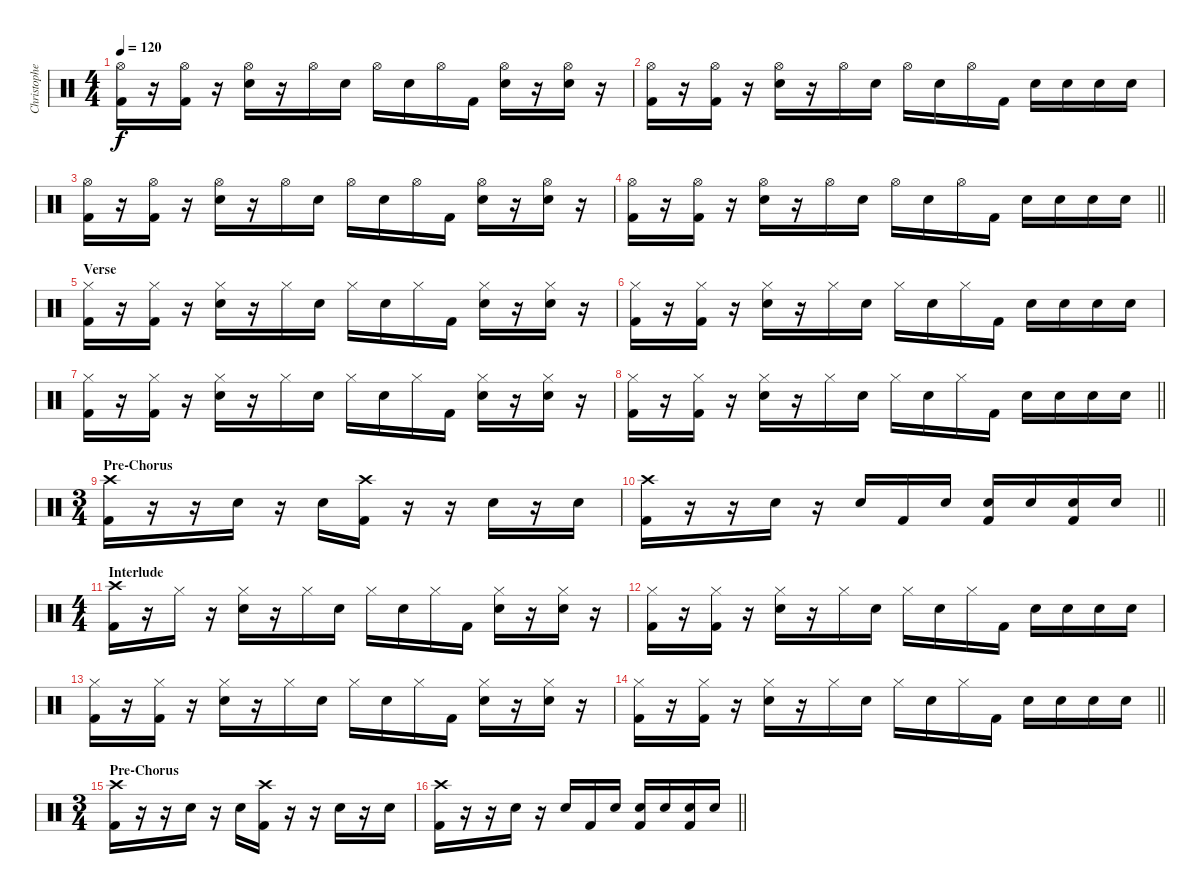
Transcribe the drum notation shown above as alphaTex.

\track ("Christopher - Drums" "Christophe") {instrument percussion}
\staff {score}
\articulation defaults
\ts (4 4)
\tempo 120
\clef neutral
\ks c
("Hi-Hat (open)" "Kick (hit) 2").16{dy f} r.16 ("Hi-Hat (open)" "Kick (hit) 2").16 r.16 ("Hi-Hat (open)" "Electric Snare (hit)").16 r.16 "Hi-Hat (open)".16 "Electric Snare (hit)".16 "Hi-Hat (open)".16 "Electric Snare (hit)".16 "Hi-Hat (open)".16 "Kick (hit) 2".16 ("Hi-Hat (open)" "Electric Snare (hit)").16 r.16 ("Hi-Hat (open)" "Electric Snare (hit)").16 r.16 |
("Hi-Hat (open)" "Kick (hit) 2").16 r.16 ("Hi-Hat (open)" "Kick (hit) 2").16 r.16 ("Hi-Hat (open)" "Electric Snare (hit)").16 r.16 "Hi-Hat (open)".16 "Electric Snare (hit)".16 "Hi-Hat (open)".16 "Electric Snare (hit)".16 "Hi-Hat (open)".16 "Kick (hit) 2".16 "Electric Snare (hit)".16 "Electric Snare (hit)".16 "Electric Snare (hit)".16 "Electric Snare (hit)".16 |
("Hi-Hat (open)" "Kick (hit) 2").16 r.16 ("Hi-Hat (open)" "Kick (hit) 2").16 r.16 ("Hi-Hat (open)" "Electric Snare (hit)").16 r.16 "Hi-Hat (open)".16 "Electric Snare (hit)".16 "Hi-Hat (open)".16 "Electric Snare (hit)".16 "Hi-Hat (open)".16 "Kick (hit) 2".16 ("Hi-Hat (open)" "Electric Snare (hit)").16 r.16 ("Hi-Hat (open)" "Electric Snare (hit)").16 r.16 |
\barLineRight lightlight
("Hi-Hat (open)" "Kick (hit) 2").16 r.16 ("Hi-Hat (open)" "Kick (hit) 2").16 r.16 ("Hi-Hat (open)" "Electric Snare (hit)").16 r.16 "Hi-Hat (open)".16 "Electric Snare (hit)".16 "Hi-Hat (open)".16 "Electric Snare (hit)".16 "Hi-Hat (open)".16 "Kick (hit) 2".16 "Electric Snare (hit)".16 "Electric Snare (hit)".16 "Electric Snare (hit)".16 "Electric Snare (hit)".16 |
\section ("" "Verse")
("Hi-Hat (closed)" "Kick (hit) 2").16 r.16 ("Hi-Hat (closed)" "Kick (hit) 2").16 r.16 ("Hi-Hat (closed)" "Electric Snare (hit)").16 r.16 "Hi-Hat (closed)".16 "Electric Snare (hit)".16 "Hi-Hat (closed)".16 "Electric Snare (hit)".16 "Hi-Hat (closed)".16 "Kick (hit) 2".16 ("Hi-Hat (closed)" "Electric Snare (hit)").16 r.16 ("Hi-Hat (closed)" "Electric Snare (hit)").16 r.16 |
("Hi-Hat (closed)" "Kick (hit) 2").16 r.16 ("Hi-Hat (closed)" "Kick (hit) 2").16 r.16 ("Hi-Hat (closed)" "Electric Snare (hit)").16 r.16 "Hi-Hat (closed)".16 "Electric Snare (hit)".16 "Hi-Hat (closed)".16 "Electric Snare (hit)".16 "Hi-Hat (closed)".16 "Kick (hit) 2".16 "Electric Snare (hit)".16 "Electric Snare (hit)".16 "Electric Snare (hit)".16 "Electric Snare (hit)".16 |
("Hi-Hat (closed)" "Kick (hit) 2").16 r.16 ("Hi-Hat (closed)" "Kick (hit) 2").16 r.16 ("Hi-Hat (closed)" "Electric Snare (hit)").16 r.16 "Hi-Hat (closed)".16 "Electric Snare (hit)".16 "Hi-Hat (closed)".16 "Electric Snare (hit)".16 "Hi-Hat (closed)".16 "Kick (hit) 2".16 ("Hi-Hat (closed)" "Electric Snare (hit)").16 r.16 ("Hi-Hat (closed)" "Electric Snare (hit)").16 r.16 |
\barLineRight lightlight
("Hi-Hat (closed)" "Kick (hit) 2").16 r.16 ("Hi-Hat (closed)" "Kick (hit) 2").16 r.16 ("Hi-Hat (closed)" "Electric Snare (hit)").16 r.16 "Hi-Hat (closed)".16 "Electric Snare (hit)".16 "Hi-Hat (closed)".16 "Electric Snare (hit)".16 "Hi-Hat (closed)".16 "Kick (hit) 2".16 "Electric Snare (hit)".16 "Electric Snare (hit)".16 "Electric Snare (hit)".16 "Electric Snare (hit)".16 |
\ts (3 4)
\section ("" "Pre-Chorus")
("Crash high (hit)" "Kick (hit) 2").16 r.16 r.16 "Electric Snare (hit)".16 r.16 "Electric Snare (hit)".16 ("Crash high (hit)" "Kick (hit) 2").16 r.16 r.16 "Electric Snare (hit)".16 r.16 "Electric Snare (hit)".16 |
\barLineRight lightlight
("Crash high (hit)" "Kick (hit) 2").16 r.16 r.16 "Electric Snare (hit)".16 r.16 "Electric Snare (hit)".16 "Kick (hit) 2".16 "Electric Snare (hit)".16 ("Electric Snare (hit)" "Kick (hit) 2").16 "Electric Snare (hit)".16 ("Electric Snare (hit)" "Kick (hit) 2").16 "Electric Snare (hit)".16 |
\ts (4 4)
\section ("" "Interlude")
("Crash high (hit)" "Kick (hit) 2").16 r.16 "Hi-Hat (closed)".16 r.16 ("Hi-Hat (closed)" "Electric Snare (hit)").16 r.16 "Hi-Hat (closed)".16 "Electric Snare (hit)".16 "Hi-Hat (closed)".16 "Electric Snare (hit)".16 "Hi-Hat (closed)".16 "Kick (hit) 2".16 ("Hi-Hat (closed)" "Electric Snare (hit)").16 r.16 ("Hi-Hat (closed)" "Electric Snare (hit)").16 r.16 |
("Hi-Hat (closed)" "Kick (hit) 2").16 r.16 ("Hi-Hat (closed)" "Kick (hit) 2").16 r.16 ("Hi-Hat (closed)" "Electric Snare (hit)").16 r.16 "Hi-Hat (closed)".16 "Electric Snare (hit)".16 "Hi-Hat (closed)".16 "Electric Snare (hit)".16 "Hi-Hat (closed)".16 "Kick (hit) 2".16 "Electric Snare (hit)".16 "Electric Snare (hit)".16 "Electric Snare (hit)".16 "Electric Snare (hit)".16 |
("Hi-Hat (closed)" "Kick (hit) 2").16 r.16 ("Hi-Hat (closed)" "Kick (hit) 2").16 r.16 ("Hi-Hat (closed)" "Electric Snare (hit)").16 r.16 "Hi-Hat (closed)".16 "Electric Snare (hit)".16 "Hi-Hat (closed)".16 "Electric Snare (hit)".16 "Hi-Hat (closed)".16 "Kick (hit) 2".16 ("Hi-Hat (closed)" "Electric Snare (hit)").16 r.16 ("Hi-Hat (closed)" "Electric Snare (hit)").16 r.16 |
\barLineRight lightlight
("Hi-Hat (closed)" "Kick (hit) 2").16 r.16 ("Hi-Hat (closed)" "Kick (hit) 2").16 r.16 ("Hi-Hat (closed)" "Electric Snare (hit)").16 r.16 "Hi-Hat (closed)".16 "Electric Snare (hit)".16 "Hi-Hat (closed)".16 "Electric Snare (hit)".16 "Hi-Hat (closed)".16 "Kick (hit) 2".16 "Electric Snare (hit)".16 "Electric Snare (hit)".16 "Electric Snare (hit)".16 "Electric Snare (hit)".16 |
\ts (3 4)
\section ("" "Pre-Chorus")
("Crash high (hit)" "Kick (hit) 2").16 r.16 r.16 "Electric Snare (hit)".16 r.16 "Electric Snare (hit)".16 ("Crash high (hit)" "Kick (hit) 2").16 r.16 r.16 "Electric Snare (hit)".16 r.16 "Electric Snare (hit)".16 |
\barLineRight lightlight
("Crash high (hit)" "Kick (hit) 2").16 r.16 r.16 "Electric Snare (hit)".16 r.16 "Electric Snare (hit)".16 "Kick (hit) 2".16 "Electric Snare (hit)".16 ("Electric Snare (hit)" "Kick (hit) 2").16 "Electric Snare (hit)".16 ("Electric Snare (hit)" "Kick (hit) 2").16 "Electric Snare (hit)".16
